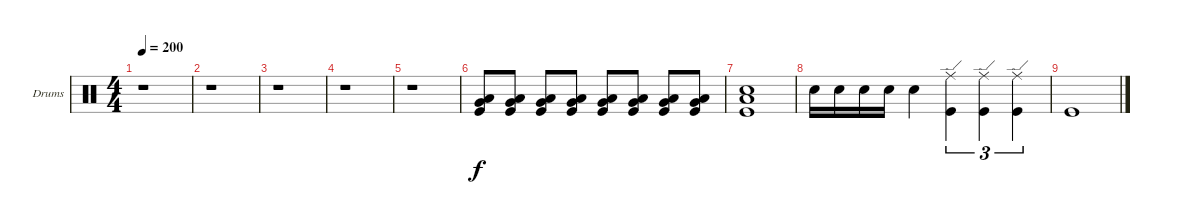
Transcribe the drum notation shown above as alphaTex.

\bracketExtendMode groupsimilarinstruments
\firstSystemTrackNameOrientation horizontal
\otherSystemsTrackNameOrientation horizontal
\track ("Drumkit" "Drums") {instrument percussion}
\staff {score}
\articulation defaults
\ts (4 4)
\tempo 200
\clef neutral
\ks aminor
r.1{dy f} |
r.1 |
r.1 |
r.1 |
r.1 |
\section ("" "")
("Kick (hit)" "Low Tom (hit)" "Very Low Tom (hit)").8 ("Kick (hit)" "Low Tom (hit)" "Very Low Tom (hit)").8 ("Kick (hit)" "Low Tom (hit)" "Very Low Tom (hit)").8 ("Kick (hit)" "Low Tom (hit)" "Very Low Tom (hit)").8 ("Kick (hit)" "Low Tom (hit)" "Very Low Tom (hit)").8 ("Kick (hit)" "Low Tom (hit)" "Very Low Tom (hit)").8 ("Kick (hit)" "Low Tom (hit)" "Very Low Tom (hit)").8 ("Kick (hit)" "Low Tom (hit)" "Very Low Tom (hit)").8 |
("Kick (hit)" "Snare (hit) 2" "Low Tom (hit)").1 |
"Snare (hit) 2".16 "Snare (hit) 2".16 "Snare (hit) 2".16 "Snare (hit) 2".16 "Snare (hit) 2".4 ("Kick (hit)" "Ride (edge)").4{tu (3 2)} ("Kick (hit)" "Ride (edge)").4{tu (3 2)} ("Kick (hit)" "Ride (edge)").4{tu (3 2)} |
"Kick (hit)".1
